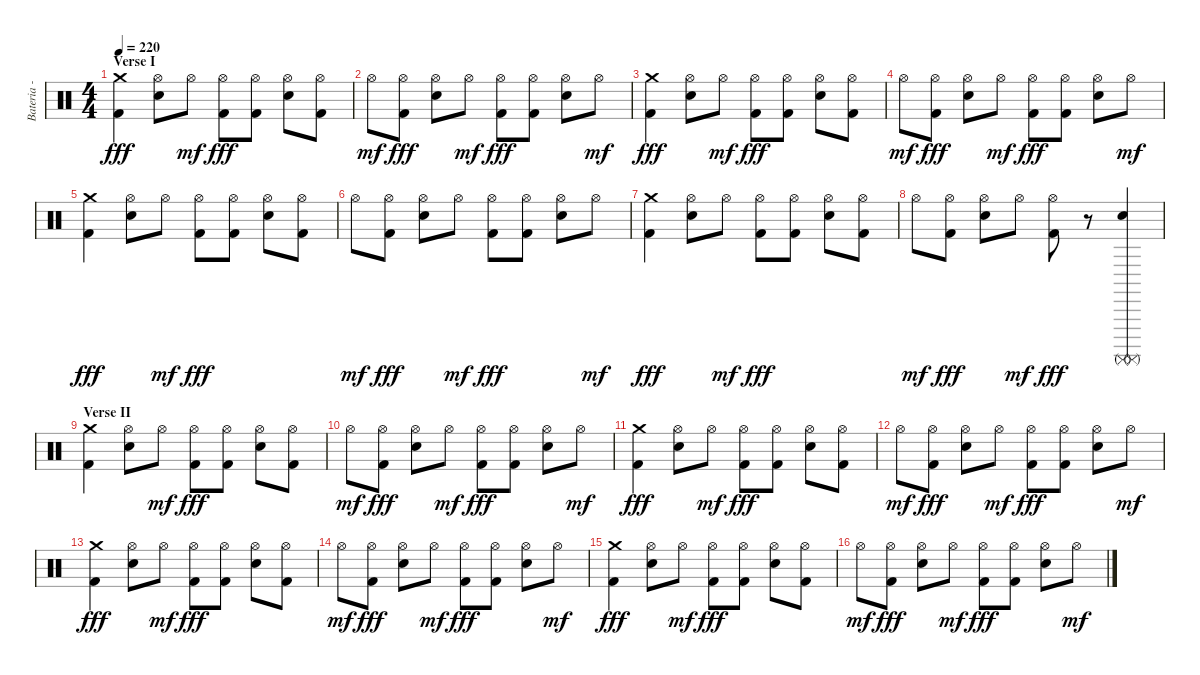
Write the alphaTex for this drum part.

\track ("Bateria - Larzon" "Bateria - ") {instrument percussion}
\staff {score}
\articulation defaults
\ts (4 4)
\section ("" "Verse I")
\tempo 220
\clef neutral
\ks c
("Crash medium (hit)" "Kick (hit) 2").4{dy fff} ("Hi-Hat (open)" "Electric Snare (hit)").8 "Hi-Hat (open)".8{dy mf} ("Hi-Hat (open)" "Kick (hit) 2").8{dy fff} ("Hi-Hat (open)" "Kick (hit) 2").8 ("Hi-Hat (open)" "Electric Snare (hit)").8 ("Hi-Hat (open)" "Kick (hit) 2").8 |
"Hi-Hat (open)".8{dy mf} ("Hi-Hat (open)" "Kick (hit) 2").8{dy fff} ("Hi-Hat (open)" "Electric Snare (hit)").8 "Hi-Hat (open)".8{dy mf} ("Hi-Hat (open)" "Kick (hit) 2").8{dy fff} ("Hi-Hat (open)" "Kick (hit) 2").8 ("Hi-Hat (open)" "Electric Snare (hit)").8 "Hi-Hat (open)".8{dy mf} |
("Crash medium (hit)" "Kick (hit) 2").4{dy fff} ("Hi-Hat (open)" "Electric Snare (hit)").8 "Hi-Hat (open)".8{dy mf} ("Hi-Hat (open)" "Kick (hit) 2").8{dy fff} ("Hi-Hat (open)" "Kick (hit) 2").8 ("Hi-Hat (open)" "Electric Snare (hit)").8 ("Hi-Hat (open)" "Kick (hit) 2").8 |
"Hi-Hat (open)".8{dy mf} ("Hi-Hat (open)" "Kick (hit) 2").8{dy fff} ("Hi-Hat (open)" "Electric Snare (hit)").8 "Hi-Hat (open)".8{dy mf} ("Hi-Hat (open)" "Kick (hit) 2").8{dy fff} ("Hi-Hat (open)" "Kick (hit) 2").8 ("Hi-Hat (open)" "Electric Snare (hit)").8 "Hi-Hat (open)".8{dy mf} |
("Crash medium (hit)" "Kick (hit) 2").4{dy fff} ("Hi-Hat (open)" "Electric Snare (hit)").8 "Hi-Hat (open)".8{dy mf} ("Hi-Hat (open)" "Kick (hit) 2").8{dy fff} ("Hi-Hat (open)" "Kick (hit) 2").8 ("Hi-Hat (open)" "Electric Snare (hit)").8 ("Hi-Hat (open)" "Kick (hit) 2").8 |
"Hi-Hat (open)".8{dy mf} ("Hi-Hat (open)" "Kick (hit) 2").8{dy fff} ("Hi-Hat (open)" "Electric Snare (hit)").8 "Hi-Hat (open)".8{dy mf} ("Hi-Hat (open)" "Kick (hit) 2").8{dy fff} ("Hi-Hat (open)" "Kick (hit) 2").8 ("Hi-Hat (open)" "Electric Snare (hit)").8 "Hi-Hat (open)".8{dy mf} |
("Crash medium (hit)" "Kick (hit) 2").4{dy fff} ("Hi-Hat (open)" "Electric Snare (hit)").8 "Hi-Hat (open)".8{dy mf} ("Hi-Hat (open)" "Kick (hit) 2").8{dy fff} ("Hi-Hat (open)" "Kick (hit) 2").8 ("Hi-Hat (open)" "Electric Snare (hit)").8 ("Hi-Hat (open)" "Kick (hit) 2").8 |
"Hi-Hat (open)".8{dy mf} ("Hi-Hat (open)" "Kick (hit) 2").8{dy fff} ("Hi-Hat (open)" "Electric Snare (hit)").8 "Hi-Hat (open)".8{dy mf} ("Hi-Hat (open)" "Kick (hit) 2").8{dy fff} r.8 ("Electric Snare (hit)" "Surdo (mute)" "Surdo (mute)").4{volume 16} |
\section ("" "Verse II")
("Crash medium (hit)" "Kick (hit) 2").4{volume 13} ("Hi-Hat (open)" "Electric Snare (hit)").8 "Hi-Hat (open)".8{dy mf} ("Hi-Hat (open)" "Kick (hit) 2").8{dy fff} ("Hi-Hat (open)" "Kick (hit) 2").8 ("Hi-Hat (open)" "Electric Snare (hit)").8 ("Hi-Hat (open)" "Kick (hit) 2").8 |
"Hi-Hat (open)".8{dy mf} ("Hi-Hat (open)" "Kick (hit) 2").8{dy fff} ("Hi-Hat (open)" "Electric Snare (hit)").8 "Hi-Hat (open)".8{dy mf} ("Hi-Hat (open)" "Kick (hit) 2").8{dy fff} ("Hi-Hat (open)" "Kick (hit) 2").8 ("Hi-Hat (open)" "Electric Snare (hit)").8 "Hi-Hat (open)".8{dy mf} |
("Crash medium (hit)" "Kick (hit) 2").4{dy fff} ("Hi-Hat (open)" "Electric Snare (hit)").8 "Hi-Hat (open)".8{dy mf} ("Hi-Hat (open)" "Kick (hit) 2").8{dy fff} ("Hi-Hat (open)" "Kick (hit) 2").8 ("Hi-Hat (open)" "Electric Snare (hit)").8 ("Hi-Hat (open)" "Kick (hit) 2").8 |
"Hi-Hat (open)".8{dy mf} ("Hi-Hat (open)" "Kick (hit) 2").8{dy fff} ("Hi-Hat (open)" "Electric Snare (hit)").8 "Hi-Hat (open)".8{dy mf} ("Hi-Hat (open)" "Kick (hit) 2").8{dy fff} ("Hi-Hat (open)" "Kick (hit) 2").8 ("Hi-Hat (open)" "Electric Snare (hit)").8 "Hi-Hat (open)".8{dy mf} |
("Crash medium (hit)" "Kick (hit) 2").4{dy fff} ("Hi-Hat (open)" "Electric Snare (hit)").8 "Hi-Hat (open)".8{dy mf} ("Hi-Hat (open)" "Kick (hit) 2").8{dy fff} ("Hi-Hat (open)" "Kick (hit) 2").8 ("Hi-Hat (open)" "Electric Snare (hit)").8 ("Hi-Hat (open)" "Kick (hit) 2").8 |
"Hi-Hat (open)".8{dy mf} ("Hi-Hat (open)" "Kick (hit) 2").8{dy fff} ("Hi-Hat (open)" "Electric Snare (hit)").8 "Hi-Hat (open)".8{dy mf} ("Hi-Hat (open)" "Kick (hit) 2").8{dy fff} ("Hi-Hat (open)" "Kick (hit) 2").8 ("Hi-Hat (open)" "Electric Snare (hit)").8 "Hi-Hat (open)".8{dy mf} |
("Crash medium (hit)" "Kick (hit) 2").4{dy fff} ("Hi-Hat (open)" "Electric Snare (hit)").8 "Hi-Hat (open)".8{dy mf} ("Hi-Hat (open)" "Kick (hit) 2").8{dy fff} ("Hi-Hat (open)" "Kick (hit) 2").8 ("Hi-Hat (open)" "Electric Snare (hit)").8 ("Hi-Hat (open)" "Kick (hit) 2").8 |
"Hi-Hat (open)".8{dy mf} ("Hi-Hat (open)" "Kick (hit) 2").8{dy fff} ("Hi-Hat (open)" "Electric Snare (hit)").8 "Hi-Hat (open)".8{dy mf} ("Hi-Hat (open)" "Kick (hit) 2").8{dy fff} ("Hi-Hat (open)" "Kick (hit) 2").8 ("Hi-Hat (open)" "Electric Snare (hit)").8 "Hi-Hat (open)".8{dy mf}
